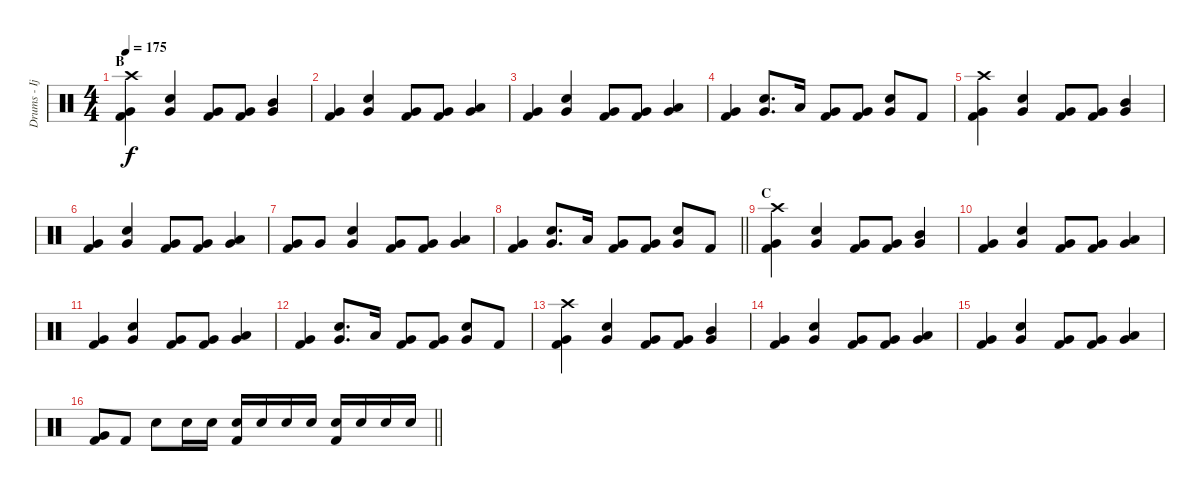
\track ("Drums - Ijichi" "Drums - Ij") {instrument percussion}
\staff {score}
\articulation defaults
\ts (4 4)
\section ("" "B")
\tempo 175
\clef neutral
\ks c
("Crash high (hit)" "Very Low Tom (hit)" "Kick (hit) 2").4{dy f} ("Snare (hit) 2" "Very Low Tom (hit)").4 ("Very Low Tom (hit)" "Kick (hit) 2").8 ("Very Low Tom (hit)" "Kick (hit) 2").8 ("Mid Tom (hit)" "Very Low Tom (hit)").4 |
("Very Low Tom (hit)" "Kick (hit) 2").4 ("Snare (hit) 2" "Very Low Tom (hit)").4 ("Very Low Tom (hit)" "Kick (hit) 2").8 ("Very Low Tom (hit)" "Kick (hit) 2").8 ("Low Tom (hit)" "Very Low Tom (hit)").4 |
("Very Low Tom (hit)" "Kick (hit) 2").4 ("Snare (hit) 2" "Very Low Tom (hit)").4 ("Very Low Tom (hit)" "Kick (hit) 2").8 ("Very Low Tom (hit)" "Kick (hit) 2").8 ("Low Tom (hit)" "Very Low Tom (hit)").4 |
("Very Low Tom (hit)" "Kick (hit) 2").4 ("Snare (hit) 2" "Very Low Tom (hit)").8{d} "Low Tom (hit)".16 ("Very Low Tom (hit)" "Kick (hit) 2").8 ("Very Low Tom (hit)" "Kick (hit) 2").8 ("Snare (hit) 2" "Very Low Tom (hit)").8 "Kick (hit) 2".8 |
("Crash high (hit)" "Very Low Tom (hit)" "Kick (hit) 2").4 ("Snare (hit) 2" "Very Low Tom (hit)").4 ("Very Low Tom (hit)" "Kick (hit) 2").8 ("Very Low Tom (hit)" "Kick (hit) 2").8 ("Mid Tom (hit)" "Very Low Tom (hit)").4 |
("Very Low Tom (hit)" "Kick (hit) 2").4 ("Snare (hit) 2" "Very Low Tom (hit)").4 ("Very Low Tom (hit)" "Kick (hit) 2").8 ("Very Low Tom (hit)" "Kick (hit) 2").8 ("Low Tom (hit)" "Very Low Tom (hit)").4 |
("Very Low Tom (hit)" "Kick (hit) 2").8 "Very Low Tom (hit)".8 ("Snare (hit) 2" "Very Low Tom (hit)").4 ("Very Low Tom (hit)" "Kick (hit) 2").8 ("Very Low Tom (hit)" "Kick (hit) 2").8 ("Low Tom (hit)" "Very Low Tom (hit)").4 |
\barLineRight lightlight
("Very Low Tom (hit)" "Kick (hit) 2").4 ("Snare (hit) 2" "Very Low Tom (hit)").8{d} "Low Tom (hit)".16 ("Very Low Tom (hit)" "Kick (hit) 2").8 ("Very Low Tom (hit)" "Kick (hit) 2").8 ("Snare (hit) 2" "Very Low Tom (hit)").8 "Kick (hit) 2".8 |
\section ("" "C")
("Crash high (hit)" "Very Low Tom (hit)" "Kick (hit) 2").4 ("Snare (hit) 2" "Very Low Tom (hit)").4 ("Very Low Tom (hit)" "Kick (hit) 2").8 ("Very Low Tom (hit)" "Kick (hit) 2").8 ("Mid Tom (hit)" "Very Low Tom (hit)").4 |
("Very Low Tom (hit)" "Kick (hit) 2").4 ("Snare (hit) 2" "Very Low Tom (hit)").4 ("Very Low Tom (hit)" "Kick (hit) 2").8 ("Very Low Tom (hit)" "Kick (hit) 2").8 ("Low Tom (hit)" "Very Low Tom (hit)").4 |
("Very Low Tom (hit)" "Kick (hit) 2").4 ("Snare (hit) 2" "Very Low Tom (hit)").4 ("Very Low Tom (hit)" "Kick (hit) 2").8 ("Very Low Tom (hit)" "Kick (hit) 2").8 ("Low Tom (hit)" "Very Low Tom (hit)").4 |
("Very Low Tom (hit)" "Kick (hit) 2").4 ("Snare (hit) 2" "Very Low Tom (hit)").8{d} "Low Tom (hit)".16 ("Very Low Tom (hit)" "Kick (hit) 2").8 ("Very Low Tom (hit)" "Kick (hit) 2").8 ("Snare (hit) 2" "Very Low Tom (hit)").8 "Kick (hit) 2".8 |
("Crash high (hit)" "Very Low Tom (hit)" "Kick (hit) 2").4 ("Snare (hit) 2" "Very Low Tom (hit)").4 ("Very Low Tom (hit)" "Kick (hit) 2").8 ("Very Low Tom (hit)" "Kick (hit) 2").8 ("Mid Tom (hit)" "Very Low Tom (hit)").4 |
("Very Low Tom (hit)" "Kick (hit) 2").4 ("Snare (hit) 2" "Very Low Tom (hit)").4 ("Very Low Tom (hit)" "Kick (hit) 2").8 ("Very Low Tom (hit)" "Kick (hit) 2").8 ("Low Tom (hit)" "Very Low Tom (hit)").4 |
("Very Low Tom (hit)" "Kick (hit) 2").4 ("Snare (hit) 2" "Very Low Tom (hit)").4 ("Very Low Tom (hit)" "Kick (hit) 2").8 ("Very Low Tom (hit)" "Kick (hit) 2").8 ("Low Tom (hit)" "Very Low Tom (hit)").4 |
\barLineRight lightlight
("Very Low Tom (hit)" "Kick (hit) 2").8 "Kick (hit) 2".8 "Snare (hit) 2".8 "Snare (hit) 2".16{volume 9} "Snare (hit) 2".16{volume 14} ("Snare (hit) 2" "Kick (hit) 2").16 "Snare (hit) 2".16 "Snare (hit) 2".16 "Snare (hit) 2".16 ("Snare (hit) 2" "Kick (hit) 2").16 "Snare (hit) 2".16 "Snare (hit) 2".16 "Snare (hit) 2".16
